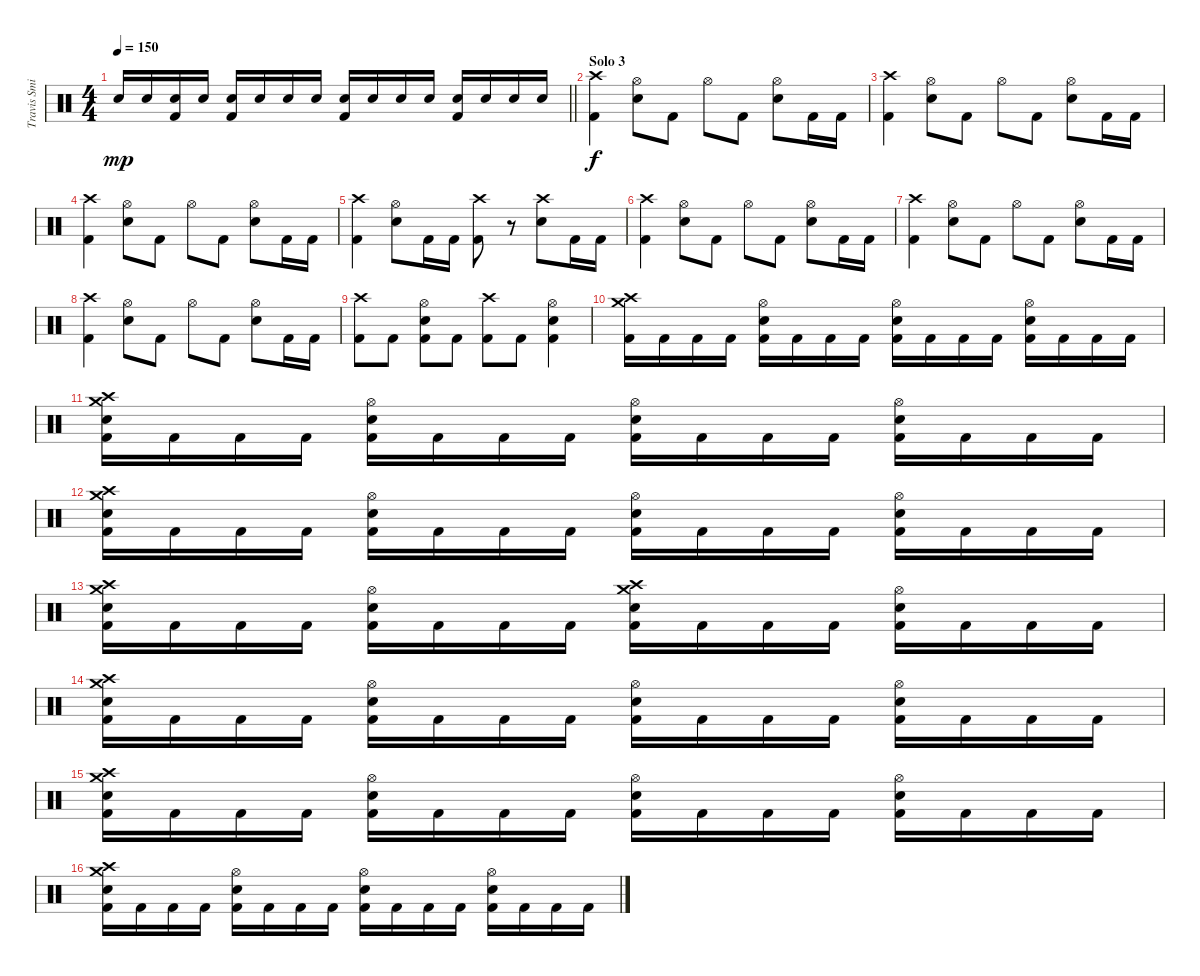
\track ("Travis Smith" "Travis Smi") {instrument percussion}
\staff {score}
\articulation defaults
\ts (4 4)
\tempo 150
\clef neutral
\barLineRight lightlight
\ks c "Electric Snare (hit)".16{dy mp} "Electric Snare (hit)".16
("Electric Snare (hit)" "Kick (hit) 2").16 "Electric Snare (hit)".16 ("Electric Snare (hit)" "Kick (hit) 2").16 "Electric Snare (hit)".16 "Electric Snare (hit)".16 "Electric Snare (hit)".16 ("Electric Snare (hit)" "Kick (hit) 2").16 "Electric Snare (hit)".16 "Electric Snare (hit)".16 "Electric Snare (hit)".16 ("Electric Snare (hit)" "Kick (hit) 2").16 "Electric Snare (hit)".16 "Electric Snare (hit)".16 "Electric Snare (hit)".16 |
\section ("" "Solo 3")
("Crash high (hit)" "Kick (hit) 2").4{dy f} ("Hi-Hat (open)" "Electric Snare (hit)").8 "Kick (hit) 2".8 "Hi-Hat (open)".8 "Kick (hit) 2".8 ("Hi-Hat (open)" "Electric Snare (hit)").8 "Kick (hit) 2".16 "Kick (hit) 2".16 |
("Crash high (hit)" "Kick (hit) 2").4 ("Hi-Hat (open)" "Electric Snare (hit)").8 "Kick (hit) 2".8 "Hi-Hat (open)".8 "Kick (hit) 2".8 ("Hi-Hat (open)" "Electric Snare (hit)").8 "Kick (hit) 2".16 "Kick (hit) 2".16 |
("Crash high (hit)" "Kick (hit) 2").4 ("Hi-Hat (open)" "Electric Snare (hit)").8 "Kick (hit) 2".8 "Hi-Hat (open)".8 "Kick (hit) 2".8 ("Hi-Hat (open)" "Electric Snare (hit)").8 "Kick (hit) 2".16 "Kick (hit) 2".16 |
("Crash high (hit)" "Kick (hit) 2").4 ("Hi-Hat (open)" "Electric Snare (hit)").8 "Kick (hit) 2".16 "Kick (hit) 2".16 ("Crash high (hit)" "Kick (hit) 2").8 r.8 ("Crash high (hit)" "Electric Snare (hit)").8 "Kick (hit) 2".16 "Kick (hit) 2".16 |
("Crash high (hit)" "Kick (hit) 2").4 ("Hi-Hat (open)" "Electric Snare (hit)").8 "Kick (hit) 2".8 "Hi-Hat (open)".8 "Kick (hit) 2".8 ("Hi-Hat (open)" "Electric Snare (hit)").8 "Kick (hit) 2".16 "Kick (hit) 2".16 |
("Crash high (hit)" "Kick (hit) 2").4 ("Hi-Hat (open)" "Electric Snare (hit)").8 "Kick (hit) 2".8 "Hi-Hat (open)".8 "Kick (hit) 2".8 ("Hi-Hat (open)" "Electric Snare (hit)").8 "Kick (hit) 2".16 "Kick (hit) 2".16 |
("Crash high (hit)" "Kick (hit) 2").4 ("Hi-Hat (open)" "Electric Snare (hit)").8 "Kick (hit) 2".8 "Hi-Hat (open)".8 "Kick (hit) 2".8 ("Hi-Hat (open)" "Electric Snare (hit)").8 "Kick (hit) 2".16 "Kick (hit) 2".16 |
("Crash high (hit)" "Kick (hit) 2").8 "Kick (hit) 2".8 ("Hi-Hat (open)" "Electric Snare (hit)" "Kick (hit) 2").8 "Kick (hit) 2".8 ("Crash high (hit)" "Kick (hit) 2").8 "Kick (hit) 2".8 ("Hi-Hat (open)" "Electric Snare (hit)" "Kick (hit) 2").4 |
("Crash high (hit)" "Crash medium (hit)" "Kick (hit) 2").16 "Kick (hit) 2".16 "Kick (hit) 2".16 "Kick (hit) 2".16 ("Hi-Hat (open)" "Electric Snare (hit)" "Kick (hit) 2").16 "Kick (hit) 2".16 "Kick (hit) 2".16 "Kick (hit) 2".16 ("Hi-Hat (open)" "Electric Snare (hit)" "Kick (hit) 2").16 "Kick (hit) 2".16 "Kick (hit) 2".16 "Kick (hit) 2".16 ("Hi-Hat (open)" "Electric Snare (hit)" "Kick (hit) 2").16 "Kick (hit) 2".16 "Kick (hit) 2".16 "Kick (hit) 2".16 |
("Crash high (hit)" "Crash medium (hit)" "Electric Snare (hit)" "Kick (hit) 2").16 "Kick (hit) 2".16 "Kick (hit) 2".16 "Kick (hit) 2".16 ("Hi-Hat (open)" "Electric Snare (hit)" "Kick (hit) 2").16 "Kick (hit) 2".16 "Kick (hit) 2".16 "Kick (hit) 2".16 ("Hi-Hat (open)" "Electric Snare (hit)" "Kick (hit) 2").16 "Kick (hit) 2".16 "Kick (hit) 2".16 "Kick (hit) 2".16 ("Hi-Hat (open)" "Electric Snare (hit)" "Kick (hit) 2").16 "Kick (hit) 2".16 "Kick (hit) 2".16 "Kick (hit) 2".16 |
("Crash high (hit)" "Crash medium (hit)" "Electric Snare (hit)" "Kick (hit) 2").16 "Kick (hit) 2".16 "Kick (hit) 2".16 "Kick (hit) 2".16 ("Hi-Hat (open)" "Electric Snare (hit)" "Kick (hit) 2").16 "Kick (hit) 2".16 "Kick (hit) 2".16 "Kick (hit) 2".16 ("Hi-Hat (open)" "Electric Snare (hit)" "Kick (hit) 2").16 "Kick (hit) 2".16 "Kick (hit) 2".16 "Kick (hit) 2".16 ("Hi-Hat (open)" "Electric Snare (hit)" "Kick (hit) 2").16 "Kick (hit) 2".16 "Kick (hit) 2".16 "Kick (hit) 2".16 |
("Crash high (hit)" "Crash medium (hit)" "Electric Snare (hit)" "Kick (hit) 2").16 "Kick (hit) 2".16 "Kick (hit) 2".16 "Kick (hit) 2".16 ("Hi-Hat (open)" "Electric Snare (hit)" "Kick (hit) 2").16 "Kick (hit) 2".16 "Kick (hit) 2".16 "Kick (hit) 2".16 ("Crash high (hit)" "Crash medium (hit)" "Electric Snare (hit)" "Kick (hit) 2").16 "Kick (hit) 2".16 "Kick (hit) 2".16 "Kick (hit) 2".16 ("Hi-Hat (open)" "Electric Snare (hit)" "Kick (hit) 2").16 "Kick (hit) 2".16 "Kick (hit) 2".16 "Kick (hit) 2".16 |
("Crash high (hit)" "Crash medium (hit)" "Electric Snare (hit)" "Kick (hit) 2").16 "Kick (hit) 2".16 "Kick (hit) 2".16 "Kick (hit) 2".16 ("Hi-Hat (open)" "Electric Snare (hit)" "Kick (hit) 2").16 "Kick (hit) 2".16 "Kick (hit) 2".16 "Kick (hit) 2".16 ("Hi-Hat (open)" "Electric Snare (hit)" "Kick (hit) 2").16 "Kick (hit) 2".16 "Kick (hit) 2".16 "Kick (hit) 2".16 ("Hi-Hat (open)" "Electric Snare (hit)" "Kick (hit) 2").16 "Kick (hit) 2".16 "Kick (hit) 2".16 "Kick (hit) 2".16 |
("Crash high (hit)" "Crash medium (hit)" "Electric Snare (hit)" "Kick (hit) 2").16 "Kick (hit) 2".16 "Kick (hit) 2".16 "Kick (hit) 2".16 ("Hi-Hat (open)" "Electric Snare (hit)" "Kick (hit) 2").16 "Kick (hit) 2".16 "Kick (hit) 2".16 "Kick (hit) 2".16 ("Hi-Hat (open)" "Electric Snare (hit)" "Kick (hit) 2").16 "Kick (hit) 2".16 "Kick (hit) 2".16 "Kick (hit) 2".16 ("Hi-Hat (open)" "Electric Snare (hit)" "Kick (hit) 2").16 "Kick (hit) 2".16 "Kick (hit) 2".16 "Kick (hit) 2".16 |
("Crash high (hit)" "Crash medium (hit)" "Electric Snare (hit)" "Kick (hit) 2").16 "Kick (hit) 2".16 "Kick (hit) 2".16 "Kick (hit) 2".16 ("Hi-Hat (open)" "Electric Snare (hit)" "Kick (hit) 2").16 "Kick (hit) 2".16 "Kick (hit) 2".16 "Kick (hit) 2".16 ("Hi-Hat (open)" "Electric Snare (hit)" "Kick (hit) 2").16 "Kick (hit) 2".16 "Kick (hit) 2".16 "Kick (hit) 2".16 ("Hi-Hat (open)" "Electric Snare (hit)" "Kick (hit) 2").16 "Kick (hit) 2".16 "Kick (hit) 2".16 "Kick (hit) 2".16
